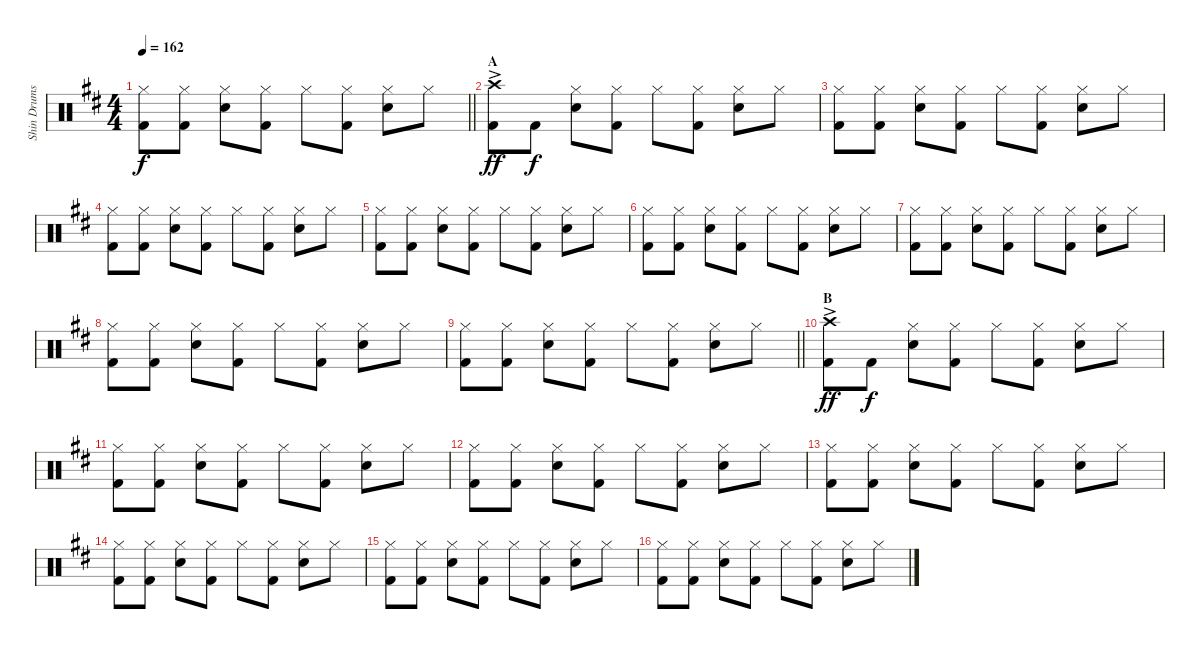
\track ("Shin Drums" "Shin Drums") {instrument percussion}
\staff {score}
\articulation defaults
\ts (4 4)
\tempo 162
\clef neutral
\barLineRight lightlight
\ks d
("Hi-Hat (closed)" "Kick (hit) 2").8{dy f} ("Hi-Hat (closed)" "Kick (hit) 2").8 ("Hi-Hat (closed)" "Snare (hit) 2").8 ("Hi-Hat (closed)" "Kick (hit) 2").8 "Hi-Hat (closed)".8 ("Hi-Hat (closed)" "Kick (hit) 2").8 ("Hi-Hat (closed)" "Snare (hit) 2").8 "Hi-Hat (closed)".8 |
\section ("" "A")
("Crash high (hit)"{ac} "Kick (hit) 2").8{dy ff} "Kick (hit) 2".8{dy f} ("Hi-Hat (closed)" "Snare (hit) 2").8 ("Hi-Hat (closed)" "Kick (hit) 2").8 "Hi-Hat (closed)".8 ("Hi-Hat (closed)" "Kick (hit) 2").8 ("Hi-Hat (closed)" "Snare (hit) 2").8 "Hi-Hat (closed)".8 |
("Hi-Hat (closed)" "Kick (hit) 2").8 ("Hi-Hat (closed)" "Kick (hit) 2").8 ("Hi-Hat (closed)" "Snare (hit) 2").8 ("Hi-Hat (closed)" "Kick (hit) 2").8 "Hi-Hat (closed)".8 ("Hi-Hat (closed)" "Kick (hit) 2").8 ("Hi-Hat (closed)" "Snare (hit) 2").8 "Hi-Hat (closed)".8 |
("Hi-Hat (closed)" "Kick (hit) 2").8 ("Hi-Hat (closed)" "Kick (hit) 2").8 ("Hi-Hat (closed)" "Snare (hit) 2").8 ("Hi-Hat (closed)" "Kick (hit) 2").8 "Hi-Hat (closed)".8 ("Hi-Hat (closed)" "Kick (hit) 2").8 ("Hi-Hat (closed)" "Snare (hit) 2").8 "Hi-Hat (closed)".8 |
("Hi-Hat (closed)" "Kick (hit) 2").8 ("Hi-Hat (closed)" "Kick (hit) 2").8 ("Hi-Hat (closed)" "Snare (hit) 2").8 ("Hi-Hat (closed)" "Kick (hit) 2").8 "Hi-Hat (closed)".8 ("Hi-Hat (closed)" "Kick (hit) 2").8 ("Hi-Hat (closed)" "Snare (hit) 2").8 "Hi-Hat (closed)".8 |
("Hi-Hat (closed)" "Kick (hit) 2").8 ("Hi-Hat (closed)" "Kick (hit) 2").8 ("Hi-Hat (closed)" "Snare (hit) 2").8 ("Hi-Hat (closed)" "Kick (hit) 2").8 "Hi-Hat (closed)".8 ("Hi-Hat (closed)" "Kick (hit) 2").8 ("Hi-Hat (closed)" "Snare (hit) 2").8 "Hi-Hat (closed)".8 |
("Hi-Hat (closed)" "Kick (hit) 2").8 ("Hi-Hat (closed)" "Kick (hit) 2").8 ("Hi-Hat (closed)" "Snare (hit) 2").8 ("Hi-Hat (closed)" "Kick (hit) 2").8 "Hi-Hat (closed)".8 ("Hi-Hat (closed)" "Kick (hit) 2").8 ("Hi-Hat (closed)" "Snare (hit) 2").8 "Hi-Hat (closed)".8 |
("Hi-Hat (closed)" "Kick (hit) 2").8 ("Hi-Hat (closed)" "Kick (hit) 2").8 ("Hi-Hat (closed)" "Snare (hit) 2").8 ("Hi-Hat (closed)" "Kick (hit) 2").8 "Hi-Hat (closed)".8 ("Hi-Hat (closed)" "Kick (hit) 2").8 ("Hi-Hat (closed)" "Snare (hit) 2").8 "Hi-Hat (closed)".8 |
\barLineRight lightlight
("Hi-Hat (closed)" "Kick (hit) 2").8 ("Hi-Hat (closed)" "Kick (hit) 2").8 ("Hi-Hat (closed)" "Snare (hit) 2").8 ("Hi-Hat (closed)" "Kick (hit) 2").8 "Hi-Hat (closed)".8 ("Hi-Hat (closed)" "Kick (hit) 2").8 ("Hi-Hat (closed)" "Snare (hit) 2").8 "Hi-Hat (closed)".8 |
\section ("" "B")
("Crash high (hit)"{ac} "Kick (hit) 2").8{dy ff} "Kick (hit) 2".8{dy f} ("Hi-Hat (closed)" "Snare (hit) 2").8 ("Hi-Hat (closed)" "Kick (hit) 2").8 "Hi-Hat (closed)".8 ("Hi-Hat (closed)" "Kick (hit) 2").8 ("Hi-Hat (closed)" "Snare (hit) 2").8 "Hi-Hat (closed)".8 |
("Hi-Hat (closed)" "Kick (hit) 2").8 ("Hi-Hat (closed)" "Kick (hit) 2").8 ("Hi-Hat (closed)" "Snare (hit) 2").8 ("Hi-Hat (closed)" "Kick (hit) 2").8 "Hi-Hat (closed)".8 ("Hi-Hat (closed)" "Kick (hit) 2").8 ("Hi-Hat (closed)" "Snare (hit) 2").8 "Hi-Hat (closed)".8 |
("Hi-Hat (closed)" "Kick (hit) 2").8 ("Hi-Hat (closed)" "Kick (hit) 2").8 ("Hi-Hat (closed)" "Snare (hit) 2").8 ("Hi-Hat (closed)" "Kick (hit) 2").8 "Hi-Hat (closed)".8 ("Hi-Hat (closed)" "Kick (hit) 2").8 ("Hi-Hat (closed)" "Snare (hit) 2").8 "Hi-Hat (closed)".8 |
("Hi-Hat (closed)" "Kick (hit) 2").8 ("Hi-Hat (closed)" "Kick (hit) 2").8 ("Hi-Hat (closed)" "Snare (hit) 2").8 ("Hi-Hat (closed)" "Kick (hit) 2").8 "Hi-Hat (closed)".8 ("Hi-Hat (closed)" "Kick (hit) 2").8 ("Hi-Hat (closed)" "Snare (hit) 2").8 "Hi-Hat (closed)".8 |
("Hi-Hat (closed)" "Kick (hit) 2").8 ("Hi-Hat (closed)" "Kick (hit) 2").8 ("Hi-Hat (closed)" "Snare (hit) 2").8 ("Hi-Hat (closed)" "Kick (hit) 2").8 "Hi-Hat (closed)".8 ("Hi-Hat (closed)" "Kick (hit) 2").8 ("Hi-Hat (closed)" "Snare (hit) 2").8 "Hi-Hat (closed)".8 |
("Hi-Hat (closed)" "Kick (hit) 2").8 ("Hi-Hat (closed)" "Kick (hit) 2").8 ("Hi-Hat (closed)" "Snare (hit) 2").8 ("Hi-Hat (closed)" "Kick (hit) 2").8 "Hi-Hat (closed)".8 ("Hi-Hat (closed)" "Kick (hit) 2").8 ("Hi-Hat (closed)" "Snare (hit) 2").8 "Hi-Hat (closed)".8 |
("Hi-Hat (closed)" "Kick (hit) 2").8 ("Hi-Hat (closed)" "Kick (hit) 2").8 ("Hi-Hat (closed)" "Snare (hit) 2").8 ("Hi-Hat (closed)" "Kick (hit) 2").8 "Hi-Hat (closed)".8 ("Hi-Hat (closed)" "Kick (hit) 2").8 ("Hi-Hat (closed)" "Snare (hit) 2").8 "Hi-Hat (closed)".8
